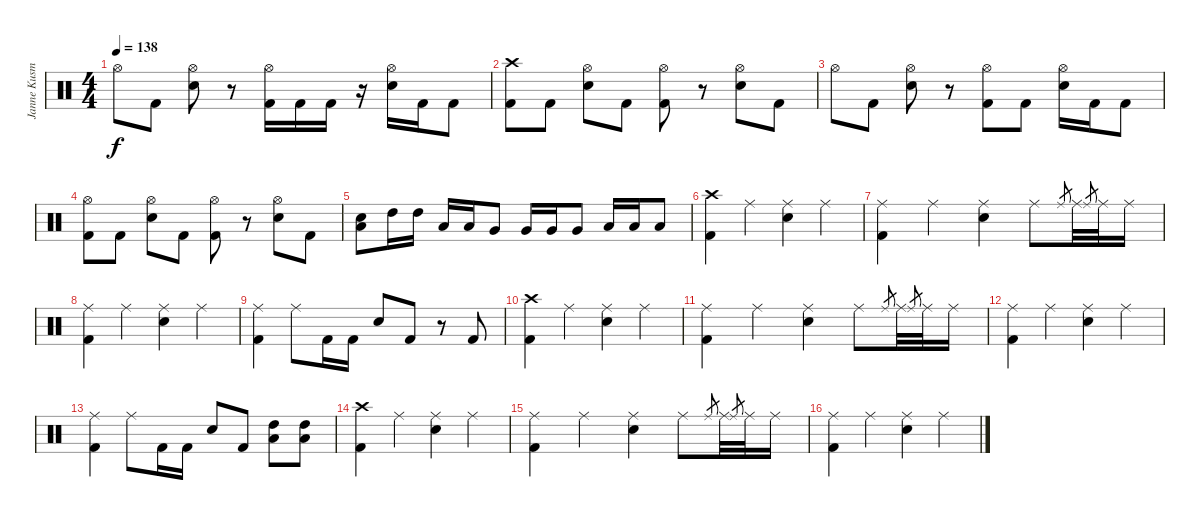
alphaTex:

\track ("Janne Kusmin" "Janne Kusm") {instrument percussion}
\staff {score}
\articulation defaults
\ts (4 4)
\tempo 138
\clef neutral
\ks c "Hi-Hat (open)".8{dy f} "Kick (hit) 2".8
("Hi-Hat (open)" "Electric Snare (hit)").8 r.8 ("Hi-Hat (open)" "Kick (hit) 2").16 "Kick (hit) 2".16 "Kick (hit) 2".16 r.16 ("Hi-Hat (open)" "Electric Snare (hit)").16 "Kick (hit) 2".16 "Kick (hit) 2".8 |
("Crash high (hit)" "Kick (hit) 2").8 "Kick (hit) 2".8 ("Hi-Hat (open)" "Electric Snare (hit)").8 "Kick (hit) 2".8 ("Hi-Hat (open)" "Kick (hit) 2").8 r.8 ("Hi-Hat (open)" "Electric Snare (hit)").8 "Kick (hit) 2".8 |
"Hi-Hat (open)".8 "Kick (hit) 2".8 ("Hi-Hat (open)" "Electric Snare (hit)").8 r.8 ("Hi-Hat (open)" "Kick (hit) 2").8 "Kick (hit) 2".8 ("Hi-Hat (open)" "Electric Snare (hit)").16 "Kick (hit) 2".16 "Kick (hit) 2".8 |
("Hi-Hat (open)" "Kick (hit) 2").8 "Kick (hit) 2".8 ("Hi-Hat (open)" "Electric Snare (hit)").8 "Kick (hit) 2".8 ("Hi-Hat (open)" "Kick (hit) 2").8 r.8 ("Hi-Hat (open)" "Electric Snare (hit)").8 "Kick (hit) 2".8 |
("Low Floor Tom (hit)" "Electric Snare (hit)").8 "High Tom (hit)".16 "High Tom (hit)".16 "Low Tom (hit)".16 "Low Tom (hit)".16 "Very Low Tom (hit)".8 "Very Low Tom (hit)".16 "Very Low Tom (hit)".16 "Very Low Tom (hit)".8 "Low Floor Tom (hit)".16 "Low Floor Tom (hit)".16 "Low Floor Tom (hit)".8 |
("Crash high (hit)" "Kick (hit) 2").4 "Ride (middle)".4 ("Ride (middle)" "Electric Snare (hit)").4 "Ride (middle)".4 |
("Ride (middle)" "Kick (hit) 2").4 "Ride (middle)".4 ("Ride (middle)" "Electric Snare (hit)").4 "Ride (middle)".8 "Ride (middle)".8{gr} "Ride (middle)".32 "Ride (middle)".8{gr} "Ride (middle)".32 "Ride (middle)".16 |
("Ride (middle)" "Kick (hit) 2").4 "Ride (middle)".4 ("Ride (middle)" "Electric Snare (hit)").4 "Ride (middle)".4 |
("Ride (middle)" "Kick (hit) 2").4 "Ride (middle)".8 "Kick (hit) 2".16 "Kick (hit) 2".16 "Electric Snare (hit)".8 "Kick (hit) 2".8 r.8 "Kick (hit) 2".8 |
("Crash high (hit)" "Kick (hit) 2").4 "Ride (middle)".4 ("Ride (middle)" "Electric Snare (hit)").4 "Ride (middle)".4 |
("Ride (middle)" "Kick (hit) 2").4 "Ride (middle)".4 ("Ride (middle)" "Electric Snare (hit)").4 "Ride (middle)".8 "Ride (middle)".8{gr} "Ride (middle)".32 "Ride (middle)".8{gr} "Ride (middle)".32 "Ride (middle)".16 |
("Ride (middle)" "Kick (hit) 2").4 "Ride (middle)".4 ("Ride (middle)" "Electric Snare (hit)").4 "Ride (middle)".4 |
("Ride (middle)" "Kick (hit) 2").4 "Ride (middle)".8 "Kick (hit) 2".16 "Kick (hit) 2".16 "Electric Snare (hit)".8 "Kick (hit) 2".8 ("High Tom (hit)" "Low Floor Tom (hit)").8 ("High Tom (hit)" "Low Floor Tom (hit)").8 |
("Crash high (hit)" "Kick (hit) 2").4 "Ride (middle)".4 ("Ride (middle)" "Electric Snare (hit)").4 "Ride (middle)".4 |
("Ride (middle)" "Kick (hit) 2").4 "Ride (middle)".4 ("Ride (middle)" "Electric Snare (hit)").4 "Ride (middle)".8 "Ride (middle)".8{gr} "Ride (middle)".32 "Ride (middle)".8{gr} "Ride (middle)".32 "Ride (middle)".16 |
("Ride (middle)" "Kick (hit) 2").4 "Ride (middle)".4 ("Ride (middle)" "Electric Snare (hit)").4 "Ride (middle)".4
